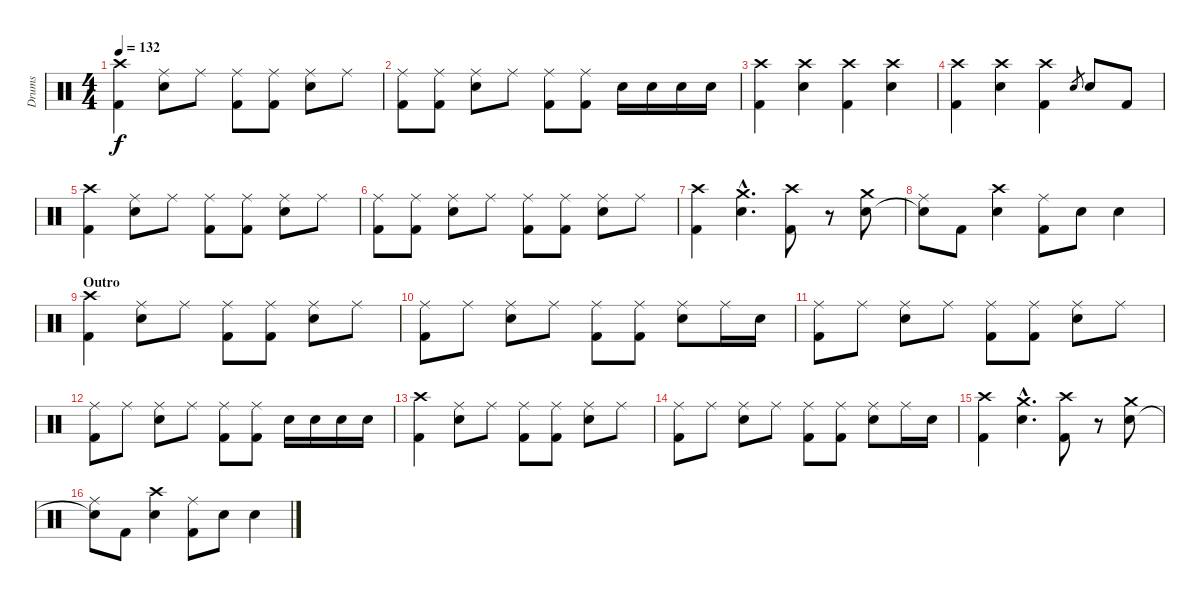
\track ("Drums" "Drums") {instrument percussion}
\staff {score}
\articulation defaults
\ts (4 4)
\tempo 132
\clef neutral
\ks c
("Crash high (hit)" "Kick (hit) 2").4{dy f} ("Ride (middle)" "Electric Snare (hit)").8 "Ride (middle)".8 ("Ride (middle)" "Kick (hit) 2").8 ("Ride (middle)" "Kick (hit) 2").8 ("Ride (middle)" "Electric Snare (hit)").8 "Ride (middle)".8 |
("Ride (middle)" "Kick (hit) 2").8 ("Ride (middle)" "Kick (hit) 2").8 ("Ride (middle)" "Electric Snare (hit)").8 "Ride (middle)".8 ("Ride (middle)" "Kick (hit) 2").8 ("Ride (middle)" "Kick (hit) 2").8 "Electric Snare (hit)".16 "Electric Snare (hit)".16 "Electric Snare (hit)".16 "Electric Snare (hit)".16 |
("Crash high (hit)" "Kick (hit) 2").4 ("Crash high (hit)" "Electric Snare (hit)").4 ("Crash high (hit)" "Kick (hit) 2").4 ("Crash high (hit)" "Electric Snare (hit)").4 |
("Crash high (hit)" "Kick (hit) 2").4 ("Crash high (hit)" "Electric Snare (hit)").4 ("Crash high (hit)" "Kick (hit) 2").4 "Electric Snare (hit)".8{gr} "Electric Snare (hit)".8 "Kick (hit) 2".8 |
("Crash high (hit)" "Kick (hit) 2").4 ("Ride (middle)" "Electric Snare (hit)").8 "Ride (middle)".8 ("Ride (middle)" "Kick (hit) 2").8 ("Ride (middle)" "Kick (hit) 2").8 ("Ride (middle)" "Electric Snare (hit)").8 "Ride (middle)".8 |
("Ride (middle)" "Kick (hit) 2").8 ("Ride (middle)" "Kick (hit) 2").8 ("Ride (middle)" "Electric Snare (hit)").8 "Ride (middle)".8 ("Ride (middle)" "Kick (hit) 2").8 ("Ride (middle)" "Kick (hit) 2").8 ("Ride (middle)" "Electric Snare (hit)").8 "Ride (middle)".8 |
("Crash high (hit)" "Kick (hit) 2").4 ("Crash medium (hit)"{hac} "Electric Snare (hit)"{hac}).4{d} ("Crash high (hit)" "Kick (hit) 2").8 r.8 ("Crash medium (hit)" "Electric Snare (hit)").8 |
("Ride (middle)" "Snare (hit)"{t}).8 "Kick (hit) 2".8 ("Crash high (hit)" "Electric Snare (hit)").4 ("Ride (middle)" "Kick (hit) 2").8 "Electric Snare (hit)".8 "Electric Snare (hit)".4 |
\section ("" "Outro")
("Crash high (hit)" "Kick (hit) 2").4 ("Ride (middle)" "Electric Snare (hit)").8 "Ride (middle)".8 ("Ride (middle)" "Kick (hit) 2").8 ("Ride (middle)" "Kick (hit) 2").8 ("Ride (middle)" "Electric Snare (hit)").8 "Ride (middle)".8 |
("Ride (middle)" "Kick (hit) 2").8 "Ride (middle)".8 ("Ride (middle)" "Electric Snare (hit)").8 "Ride (middle)".8 ("Ride (middle)" "Kick (hit) 2").8 ("Ride (middle)" "Kick (hit) 2").8 ("Ride (middle)" "Electric Snare (hit)").8 "Ride (middle)".16 "Electric Snare (hit)".16 |
("Ride (middle)" "Kick (hit) 2").8 "Ride (middle)".8 ("Ride (middle)" "Electric Snare (hit)").8 "Ride (middle)".8 ("Ride (middle)" "Kick (hit) 2").8 ("Ride (middle)" "Kick (hit) 2").8 ("Ride (middle)" "Electric Snare (hit)").8 "Ride (middle)".8 |
("Ride (middle)" "Kick (hit) 2").8 "Ride (middle)".8 ("Ride (middle)" "Electric Snare (hit)").8 "Ride (middle)".8 ("Ride (middle)" "Kick (hit) 2").8 ("Ride (middle)" "Kick (hit) 2").8 "Electric Snare (hit)".16 "Electric Snare (hit)".16 "Electric Snare (hit)".16 "Electric Snare (hit)".16 |
("Crash high (hit)" "Kick (hit) 2").4 ("Ride (middle)" "Electric Snare (hit)").8 "Ride (middle)".8 ("Ride (middle)" "Kick (hit) 2").8 ("Ride (middle)" "Kick (hit) 2").8 ("Ride (middle)" "Electric Snare (hit)").8 "Ride (middle)".8 |
("Ride (middle)" "Kick (hit) 2").8 "Ride (middle)".8 ("Ride (middle)" "Electric Snare (hit)").8 "Ride (middle)".8 ("Ride (middle)" "Kick (hit) 2").8 ("Ride (middle)" "Kick (hit) 2").8 ("Ride (middle)" "Electric Snare (hit)").8 "Ride (middle)".16 "Electric Snare (hit)".16 |
("Crash high (hit)" "Kick (hit) 2").4 ("Crash medium (hit)"{hac} "Electric Snare (hit)"{hac}).4{d} ("Crash high (hit)" "Kick (hit) 2").8 r.8 ("Crash medium (hit)" "Electric Snare (hit)").8 |
("Ride (middle)" "Snare (hit)"{t}).8 "Kick (hit) 2".8 ("Crash high (hit)" "Electric Snare (hit)").4 ("Ride (middle)" "Kick (hit) 2").8 "Electric Snare (hit)".8 "Electric Snare (hit)".4
